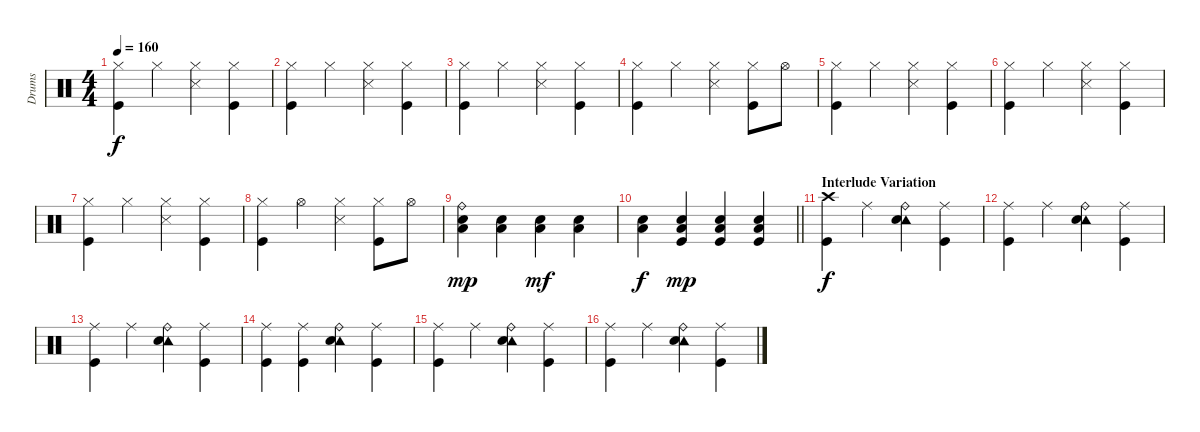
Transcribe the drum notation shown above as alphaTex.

\track ("Drums" "Drums") {instrument percussion}
\staff {score}
\articulation defaults
\ts (4 4)
\tempo 160
\clef neutral
\ks c
("Hi-Hat (closed)" "Kick (hit)").4{dy f} "Hi-Hat (closed)".4 ("Hi-Hat (closed)" "Snare (side stick) 3").4 ("Hi-Hat (closed)" "Kick (hit)").4 |
("Hi-Hat (closed)" "Kick (hit)").4 "Hi-Hat (closed)".4 ("Hi-Hat (closed)" "Snare (side stick) 3").4 ("Hi-Hat (closed)" "Kick (hit)").4 |
("Hi-Hat (closed)" "Kick (hit)").4 "Hi-Hat (closed)".4 ("Hi-Hat (closed)" "Snare (side stick) 3").4 ("Hi-Hat (closed)" "Kick (hit)").4 |
("Hi-Hat (closed)" "Kick (hit)").4 "Hi-Hat (closed)".4 ("Hi-Hat (closed)" "Snare (side stick) 3").4 ("Hi-Hat (closed)" "Kick (hit)").8 "Hi-Hat (open)".8 |
("Hi-Hat (closed)" "Kick (hit)").4 "Hi-Hat (closed)".4 ("Hi-Hat (closed)" "Snare (side stick) 3").4 ("Hi-Hat (closed)" "Kick (hit)").4 |
("Hi-Hat (closed)" "Kick (hit)").4 "Hi-Hat (closed)".4 ("Hi-Hat (closed)" "Snare (side stick) 3").4 ("Hi-Hat (closed)" "Kick (hit)").4 |
("Hi-Hat (closed)" "Kick (hit)").4 "Hi-Hat (closed)".4 ("Hi-Hat (closed)" "Snare (side stick) 3").4 ("Hi-Hat (closed)" "Kick (hit)").4 |
("Hi-Hat (closed)" "Kick (hit)").4 "Hi-Hat (open)".4 ("Hi-Hat (closed)" "Snare (side stick) 3").4 ("Hi-Hat (closed)" "Kick (hit)").8 "Hi-Hat (open)".8 |
("Ride (bell)" "Low Floor Tom (hit)" "Electric Snare (hit)").4{dy mp} ("Low Floor Tom (hit)" "Electric Snare (hit)").4 ("Low Floor Tom (hit)" "Electric Snare (hit)").4{dy mf} ("Low Floor Tom (hit)" "Electric Snare (hit)").4 |
\barLineRight lightlight
("Low Floor Tom (hit)" "Electric Snare (hit)").4{dy f} ("Low Floor Tom (hit)" "Electric Snare (hit)" "Kick (hit)").4{dy mp} ("Low Floor Tom (hit)" "Electric Snare (hit)" "Kick (hit)").4 ("Low Floor Tom (hit)" "Electric Snare (hit)" "Kick (hit)").4 |
\section ("" "Interlude Variation")
("Crash high (hit)" "Kick (hit)").4{dy f} "Ride (middle)".4 ("Tambourine (hit)" "Ride (bell)" "Electric Snare (hit)").4 ("Ride (middle)" "Kick (hit)").4 |
("Ride (middle)" "Kick (hit)").4 "Ride (middle)".4 ("Tambourine (hit)" "Ride (bell)" "Electric Snare (hit)").4 ("Ride (middle)" "Kick (hit)").4 |
("Ride (middle)" "Kick (hit)").4 "Ride (middle)".4 ("Tambourine (hit)" "Ride (bell)" "Electric Snare (hit)").4 ("Ride (middle)" "Kick (hit)").4 |
("Ride (middle)" "Kick (hit)").4 ("Ride (middle)" "Kick (hit)").4 ("Tambourine (hit)" "Ride (bell)" "Electric Snare (hit)").4 ("Ride (middle)" "Kick (hit)").4 |
("Ride (middle)" "Kick (hit)").4 "Ride (middle)".4 ("Tambourine (hit)" "Ride (bell)" "Electric Snare (hit)").4 ("Ride (middle)" "Kick (hit)").4 |
("Ride (middle)" "Kick (hit)").4 "Ride (middle)".4 ("Tambourine (hit)" "Ride (bell)" "Electric Snare (hit)").4 ("Ride (middle)" "Kick (hit)").4
